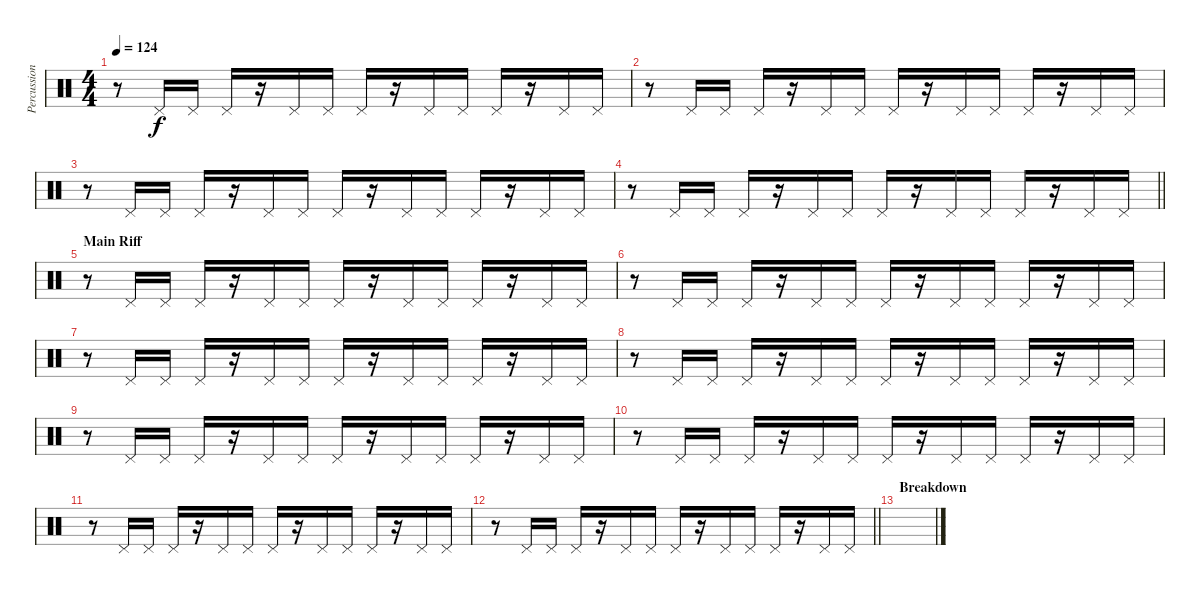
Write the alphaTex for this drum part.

\track ("Percussion" "Percussion") {instrument percussion}
\staff {score}
\articulation defaults
\ts (4 4)
\tempo 124
\clef neutral
\ks c
r.8{dy f} "Pedal Hi-Hat (hit)".16 "Pedal Hi-Hat (hit)".16 "Pedal Hi-Hat (hit)".16 r.16 "Pedal Hi-Hat (hit)".16 "Pedal Hi-Hat (hit)".16 "Pedal Hi-Hat (hit)".16 r.16 "Pedal Hi-Hat (hit)".16 "Pedal Hi-Hat (hit)".16 "Pedal Hi-Hat (hit)".16 r.16 "Pedal Hi-Hat (hit)".16 "Pedal Hi-Hat (hit)".16 |
r.8 "Pedal Hi-Hat (hit)".16 "Pedal Hi-Hat (hit)".16 "Pedal Hi-Hat (hit)".16 r.16 "Pedal Hi-Hat (hit)".16 "Pedal Hi-Hat (hit)".16 "Pedal Hi-Hat (hit)".16 r.16 "Pedal Hi-Hat (hit)".16 "Pedal Hi-Hat (hit)".16 "Pedal Hi-Hat (hit)".16 r.16 "Pedal Hi-Hat (hit)".16 "Pedal Hi-Hat (hit)".16 |
r.8 "Pedal Hi-Hat (hit)".16 "Pedal Hi-Hat (hit)".16 "Pedal Hi-Hat (hit)".16 r.16 "Pedal Hi-Hat (hit)".16 "Pedal Hi-Hat (hit)".16 "Pedal Hi-Hat (hit)".16 r.16 "Pedal Hi-Hat (hit)".16 "Pedal Hi-Hat (hit)".16 "Pedal Hi-Hat (hit)".16 r.16 "Pedal Hi-Hat (hit)".16 "Pedal Hi-Hat (hit)".16 |
\barLineRight lightlight
r.8 "Pedal Hi-Hat (hit)".16 "Pedal Hi-Hat (hit)".16 "Pedal Hi-Hat (hit)".16 r.16 "Pedal Hi-Hat (hit)".16 "Pedal Hi-Hat (hit)".16 "Pedal Hi-Hat (hit)".16 r.16 "Pedal Hi-Hat (hit)".16 "Pedal Hi-Hat (hit)".16 "Pedal Hi-Hat (hit)".16 r.16 "Pedal Hi-Hat (hit)".16 "Pedal Hi-Hat (hit)".16 |
\section ("" "Main Riff")
r.8 "Pedal Hi-Hat (hit)".16 "Pedal Hi-Hat (hit)".16 "Pedal Hi-Hat (hit)".16 r.16 "Pedal Hi-Hat (hit)".16 "Pedal Hi-Hat (hit)".16 "Pedal Hi-Hat (hit)".16 r.16 "Pedal Hi-Hat (hit)".16 "Pedal Hi-Hat (hit)".16 "Pedal Hi-Hat (hit)".16 r.16 "Pedal Hi-Hat (hit)".16 "Pedal Hi-Hat (hit)".16 |
r.8 "Pedal Hi-Hat (hit)".16 "Pedal Hi-Hat (hit)".16 "Pedal Hi-Hat (hit)".16 r.16 "Pedal Hi-Hat (hit)".16 "Pedal Hi-Hat (hit)".16 "Pedal Hi-Hat (hit)".16 r.16 "Pedal Hi-Hat (hit)".16 "Pedal Hi-Hat (hit)".16 "Pedal Hi-Hat (hit)".16 r.16 "Pedal Hi-Hat (hit)".16 "Pedal Hi-Hat (hit)".16 |
r.8 "Pedal Hi-Hat (hit)".16 "Pedal Hi-Hat (hit)".16 "Pedal Hi-Hat (hit)".16 r.16 "Pedal Hi-Hat (hit)".16 "Pedal Hi-Hat (hit)".16 "Pedal Hi-Hat (hit)".16 r.16 "Pedal Hi-Hat (hit)".16 "Pedal Hi-Hat (hit)".16 "Pedal Hi-Hat (hit)".16 r.16 "Pedal Hi-Hat (hit)".16 "Pedal Hi-Hat (hit)".16 |
r.8 "Pedal Hi-Hat (hit)".16 "Pedal Hi-Hat (hit)".16 "Pedal Hi-Hat (hit)".16 r.16 "Pedal Hi-Hat (hit)".16 "Pedal Hi-Hat (hit)".16 "Pedal Hi-Hat (hit)".16 r.16 "Pedal Hi-Hat (hit)".16 "Pedal Hi-Hat (hit)".16 "Pedal Hi-Hat (hit)".16 r.16 "Pedal Hi-Hat (hit)".16 "Pedal Hi-Hat (hit)".16 |
r.8 "Pedal Hi-Hat (hit)".16 "Pedal Hi-Hat (hit)".16 "Pedal Hi-Hat (hit)".16 r.16 "Pedal Hi-Hat (hit)".16 "Pedal Hi-Hat (hit)".16 "Pedal Hi-Hat (hit)".16 r.16 "Pedal Hi-Hat (hit)".16 "Pedal Hi-Hat (hit)".16 "Pedal Hi-Hat (hit)".16 r.16 "Pedal Hi-Hat (hit)".16 "Pedal Hi-Hat (hit)".16 |
r.8 "Pedal Hi-Hat (hit)".16 "Pedal Hi-Hat (hit)".16 "Pedal Hi-Hat (hit)".16 r.16 "Pedal Hi-Hat (hit)".16 "Pedal Hi-Hat (hit)".16 "Pedal Hi-Hat (hit)".16 r.16 "Pedal Hi-Hat (hit)".16 "Pedal Hi-Hat (hit)".16 "Pedal Hi-Hat (hit)".16 r.16 "Pedal Hi-Hat (hit)".16 "Pedal Hi-Hat (hit)".16 |
r.8 "Pedal Hi-Hat (hit)".16 "Pedal Hi-Hat (hit)".16 "Pedal Hi-Hat (hit)".16 r.16 "Pedal Hi-Hat (hit)".16 "Pedal Hi-Hat (hit)".16 "Pedal Hi-Hat (hit)".16 r.16 "Pedal Hi-Hat (hit)".16 "Pedal Hi-Hat (hit)".16 "Pedal Hi-Hat (hit)".16 r.16 "Pedal Hi-Hat (hit)".16 "Pedal Hi-Hat (hit)".16 |
\barLineRight lightlight
r.8 "Pedal Hi-Hat (hit)".16 "Pedal Hi-Hat (hit)".16 "Pedal Hi-Hat (hit)".16 r.16 "Pedal Hi-Hat (hit)".16 "Pedal Hi-Hat (hit)".16 "Pedal Hi-Hat (hit)".16 r.16 "Pedal Hi-Hat (hit)".16 "Pedal Hi-Hat (hit)".16 "Pedal Hi-Hat (hit)".16 r.16 "Pedal Hi-Hat (hit)".16 "Pedal Hi-Hat (hit)".16 |
\section ("" "Breakdown")
